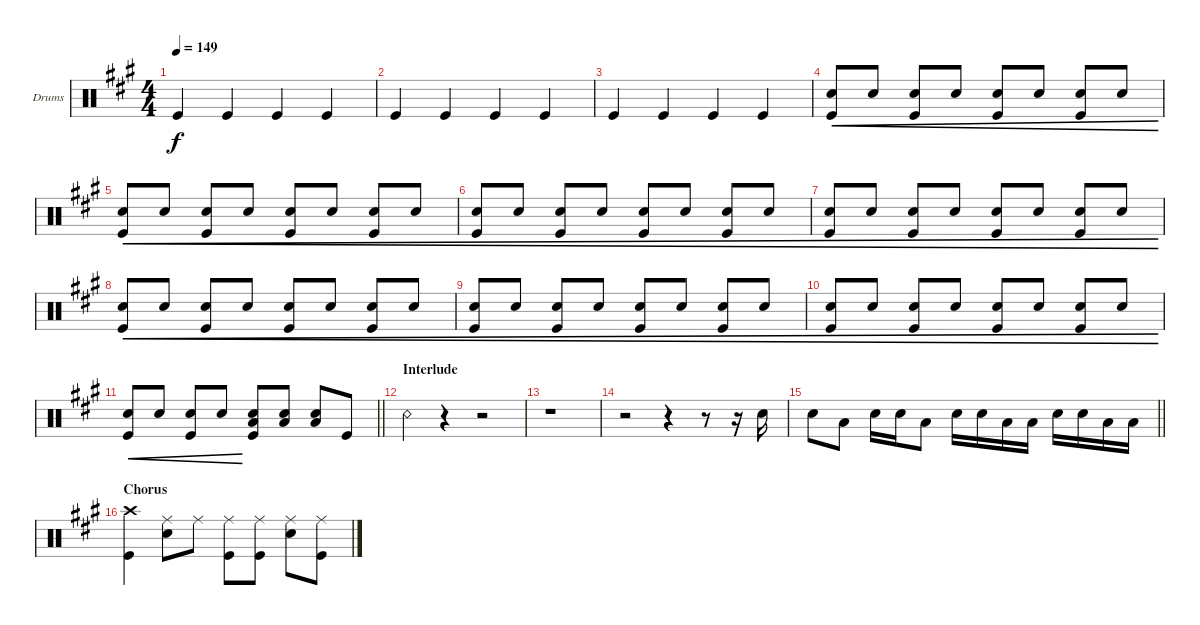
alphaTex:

\defaultSystemsLayout 4
\bracketExtendMode groupsimilarinstruments
\firstSystemTrackNameOrientation horizontal
\otherSystemsTrackNameOrientation horizontal
\track ("Drums" "Drums") {instrument percussion}
\staff {score}
\articulation defaults
\ts (4 4)
\tempo 149
\clef neutral
\ks a "Kick (hit)".4{dy f} "Kick (hit)".4 "Kick (hit)".4 "Kick (hit)".4
|
"Kick (hit)".4 "Kick (hit)".4 "Kick (hit)".4 "Kick (hit)".4 |
"Kick (hit)".4 "Kick (hit)".4 "Kick (hit)".4 "Kick (hit)".4 |
("Kick (hit)" "Snare (hit) 2").8{cre} "Snare (hit) 2".8{cre} ("Kick (hit)" "Snare (hit) 2").8{cre} "Snare (hit) 2".8{cre} ("Kick (hit)" "Snare (hit) 2").8{cre} "Snare (hit) 2".8{cre} ("Kick (hit)" "Snare (hit) 2").8{cre} "Snare (hit) 2".8{cre} |
("Kick (hit)" "Snare (hit) 2").8{cre} "Snare (hit) 2".8{cre} ("Kick (hit)" "Snare (hit) 2").8{cre} "Snare (hit) 2".8{cre} ("Kick (hit)" "Snare (hit) 2").8{cre} "Snare (hit) 2".8{cre} ("Kick (hit)" "Snare (hit) 2").8{cre} "Snare (hit) 2".8{cre} |
("Kick (hit)" "Snare (hit) 2").8{cre} "Snare (hit) 2".8{cre} ("Kick (hit)" "Snare (hit) 2").8{cre} "Snare (hit) 2".8{cre} ("Kick (hit)" "Snare (hit) 2").8{cre} "Snare (hit) 2".8{cre} ("Kick (hit)" "Snare (hit) 2").8{cre} "Snare (hit) 2".8{cre} |
("Kick (hit)" "Snare (hit) 2").8{cre} "Snare (hit) 2".8{cre} ("Kick (hit)" "Snare (hit) 2").8{cre} "Snare (hit) 2".8{cre} ("Kick (hit)" "Snare (hit) 2").8{cre} "Snare (hit) 2".8{cre} ("Kick (hit)" "Snare (hit) 2").8{cre} "Snare (hit) 2".8{cre} |
("Kick (hit)" "Snare (hit) 2").8{cre} "Snare (hit) 2".8{cre} ("Kick (hit)" "Snare (hit) 2").8{cre} "Snare (hit) 2".8{cre} ("Kick (hit)" "Snare (hit) 2").8{cre} "Snare (hit) 2".8{cre} ("Kick (hit)" "Snare (hit) 2").8{cre} "Snare (hit) 2".8{cre} |
("Kick (hit)" "Snare (hit) 2").8{cre} "Snare (hit) 2".8{cre} ("Kick (hit)" "Snare (hit) 2").8{cre} "Snare (hit) 2".8{cre} ("Kick (hit)" "Snare (hit) 2").8{cre} "Snare (hit) 2".8{cre} ("Kick (hit)" "Snare (hit) 2").8{cre} "Snare (hit) 2".8{cre} |
("Kick (hit)" "Snare (hit) 2").8{cre} "Snare (hit) 2".8{cre} ("Kick (hit)" "Snare (hit) 2").8{cre} "Snare (hit) 2".8{cre} ("Kick (hit)" "Snare (hit) 2").8{cre} "Snare (hit) 2".8{cre} ("Kick (hit)" "Snare (hit) 2").8{cre} "Snare (hit) 2".8{cre} |
\barLineRight lightlight
("Kick (hit)" "Snare (hit) 2").8{cre} "Snare (hit) 2".8{cre} ("Kick (hit)" "Snare (hit) 2").8{cre} "Snare (hit) 2".8{cre} ("Low Tom (hit)" "Snare (hit) 2" "Kick (hit)").8 ("Low Tom (hit)" "Snare (hit) 2").8 ("Low Tom (hit)" "Snare (hit) 2").8 "Kick (hit)".8 |
\section ("" "Interlude")
"Snare (rim shot)".4 r.4 r.2 |
r.1 |
r.2 r.4 r.8 r.16 "Snare (hit) 2".16 |
\barLineRight lightlight "Snare (hit) 2".8 "Low Tom (hit)".8 "Snare (hit) 2".16 "Snare (hit) 2".16 "Low Tom (hit)".8 "Snare (hit) 2".16 "Snare (hit) 2".16 "Low Tom (hit)".16 "Low Tom (hit)".16 "Snare (hit) 2".16 "Snare (hit) 2".16 "Low Tom (hit)".16 "Low Tom (hit)".16
|
\section ("" "Chorus")
("Kick (hit)" "Crash high (hit)").4 ("Ride (middle)" "Snare (hit) 2").8 "Ride (middle)".8 ("Ride (middle)" "Kick (hit)").8 ("Ride (middle)" "Kick (hit)").8 ("Ride (middle)" "Snare (hit) 2").8 ("Ride (middle)" "Kick (hit)").8
